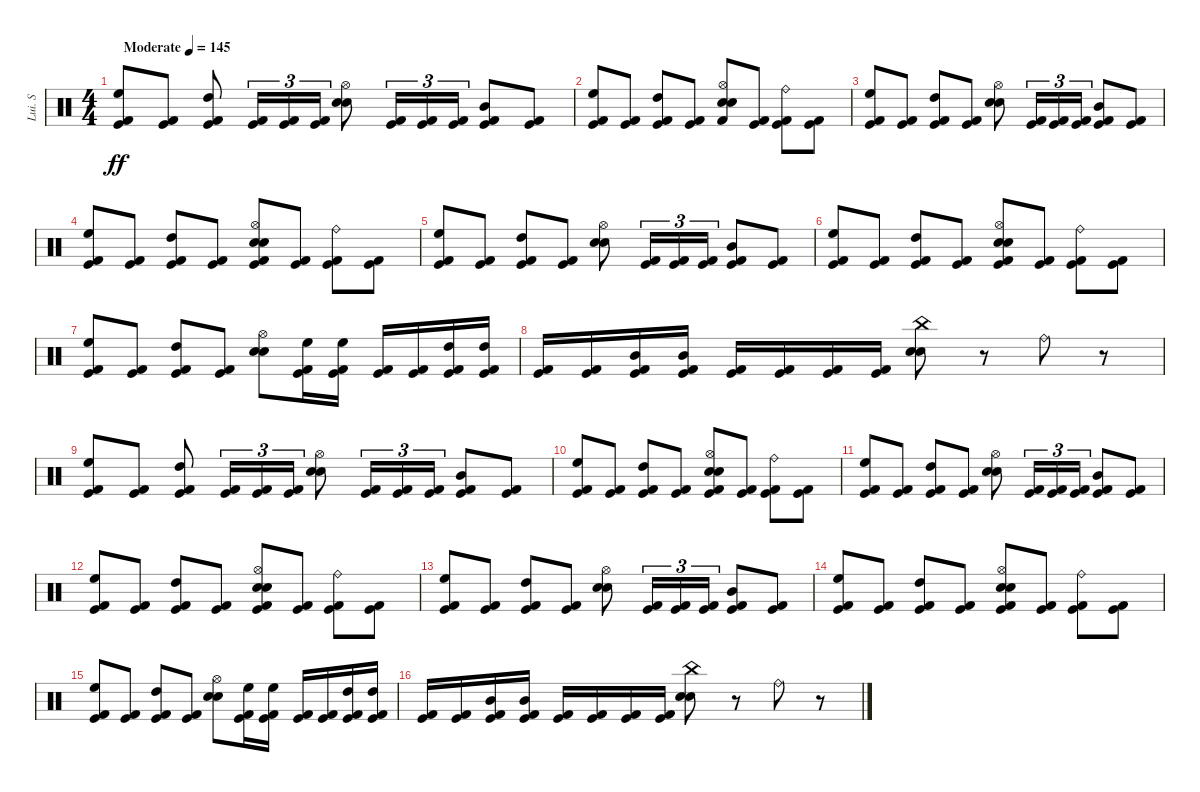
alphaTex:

\track ("Lui. S" "Lui. S") {instrument percussion}
\staff {score}
\articulation defaults
\ts (4 4)
\tempo (145 "Moderate")
\clef neutral
\ks c
("High Floor Tom (hit)" "Kick (hit)" "Kick (hit) 2").8{dy ff} ("Kick (hit)" "Kick (hit) 2").8 ("High Tom (hit)" "Kick (hit)" "Kick (hit) 2").8 ("Kick (hit)" "Kick (hit) 2").16{tu (3 2)} ("Kick (hit)" "Kick (hit) 2").16{tu (3 2)} ("Kick (hit)" "Kick (hit) 2").16{tu (3 2)} ("Hi-Hat (open)" "Snare (hit) 2" "Electric Snare (hit)").8 ("Kick (hit)" "Kick (hit) 2").16{tu (3 2)} ("Kick (hit)" "Kick (hit) 2").16{tu (3 2)} ("Kick (hit)" "Kick (hit) 2").16{tu (3 2)} ("Mid Tom (hit)" "Kick (hit)" "Kick (hit) 2").8 ("Kick (hit)" "Kick (hit) 2").8 |
("High Floor Tom (hit)" "Kick (hit)" "Kick (hit) 2").8 ("Kick (hit)" "Kick (hit) 2").8 ("High Tom (hit)" "Kick (hit)" "Kick (hit) 2").8 ("Kick (hit)" "Kick (hit) 2").8 ("Hi-Hat (open)" "Snare (hit) 2" "Electric Snare (hit)" "Kick (hit) 2").8 ("Kick (hit)" "Kick (hit) 2").8 ("Ride (bell)" "Kick (hit)" "Kick (hit) 2").8 ("Kick (hit)" "Kick (hit) 2").8 |
("High Floor Tom (hit)" "Kick (hit)" "Kick (hit) 2").8 ("Kick (hit)" "Kick (hit) 2").8 ("High Tom (hit)" "Kick (hit)" "Kick (hit) 2").8 ("Kick (hit)" "Kick (hit) 2").8 ("Hi-Hat (open)" "Snare (hit) 2" "Electric Snare (hit)").8 ("Kick (hit)" "Kick (hit) 2").16{tu (3 2)} ("Kick (hit)" "Kick (hit) 2").16{tu (3 2)} ("Kick (hit)" "Kick (hit) 2").16{tu (3 2)} ("Mid Tom (hit)" "Kick (hit)" "Kick (hit) 2").8 ("Kick (hit)" "Kick (hit) 2").8 |
("High Floor Tom (hit)" "Kick (hit)" "Kick (hit) 2").8 ("Kick (hit)" "Kick (hit) 2").8 ("High Tom (hit)" "Kick (hit)" "Kick (hit) 2").8 ("Kick (hit)" "Kick (hit) 2").8 ("Snare (hit) 2" "Hi-Hat (open)" "Kick (hit)" "Electric Snare (hit)" "Kick (hit) 2").8 ("Kick (hit)" "Kick (hit) 2").8 ("Ride (bell)" "Kick (hit)" "Kick (hit) 2").8 ("Kick (hit)" "Kick (hit) 2").8 |
("High Floor Tom (hit)" "Kick (hit)" "Kick (hit) 2").8 ("Kick (hit)" "Kick (hit) 2").8 ("High Tom (hit)" "Kick (hit)" "Kick (hit) 2").8 ("Kick (hit)" "Kick (hit) 2").8 ("Hi-Hat (open)" "Snare (hit) 2" "Electric Snare (hit)").8 ("Kick (hit)" "Kick (hit) 2").16{tu (3 2)} ("Kick (hit)" "Kick (hit) 2").16{tu (3 2)} ("Kick (hit)" "Kick (hit) 2").16{tu (3 2)} ("Mid Tom (hit)" "Kick (hit)" "Kick (hit) 2").8 ("Kick (hit)" "Kick (hit) 2").8 |
("High Floor Tom (hit)" "Kick (hit)" "Kick (hit) 2").8 ("Kick (hit)" "Kick (hit) 2").8 ("High Tom (hit)" "Kick (hit)" "Kick (hit) 2").8 ("Kick (hit)" "Kick (hit) 2").8 ("Snare (hit) 2" "Hi-Hat (open)" "Kick (hit)" "Electric Snare (hit)" "Kick (hit) 2").8 ("Kick (hit)" "Kick (hit) 2").8 ("Ride (bell)" "Kick (hit)" "Kick (hit) 2").8 ("Kick (hit)" "Kick (hit) 2").8 |
("High Floor Tom (hit)" "Kick (hit)" "Kick (hit) 2").8 ("Kick (hit)" "Kick (hit) 2").8 ("High Tom (hit)" "Kick (hit)" "Kick (hit) 2").8 ("Kick (hit)" "Kick (hit) 2").8 ("Hi-Hat (open)" "Snare (hit) 2" "Electric Snare (hit)").8 ("High Floor Tom (hit)" "Kick (hit)" "Kick (hit) 2").16 ("High Floor Tom (hit)" "Kick (hit)" "Kick (hit) 2").16 ("Kick (hit)" "Kick (hit) 2").16 ("Kick (hit)" "Kick (hit) 2").16 ("High Tom (hit)" "Kick (hit)" "Kick (hit) 2").16 ("High Tom (hit)" "Kick (hit)" "Kick (hit) 2").16 |
("Kick (hit)" "Kick (hit) 2").16 ("Kick (hit)" "Kick (hit) 2").16 ("Mid Tom (hit)" "Kick (hit)" "Kick (hit) 2").16 ("Mid Tom (hit)" "Kick (hit)" "Kick (hit) 2").16 ("Kick (hit)" "Kick (hit) 2").16 ("Kick (hit)" "Kick (hit) 2").16 ("Kick (hit)" "Kick (hit) 2").16 ("Kick (hit)" "Kick (hit) 2").16 ("China (hit)" "Snare (hit) 2" "Electric Snare (hit)").8 r.8 "Ride (bell)".8 r.8 |
("High Floor Tom (hit)" "Kick (hit)" "Kick (hit) 2").8 ("Kick (hit)" "Kick (hit) 2").8 ("High Tom (hit)" "Kick (hit)" "Kick (hit) 2").8 ("Kick (hit)" "Kick (hit) 2").16{tu (3 2)} ("Kick (hit)" "Kick (hit) 2").16{tu (3 2)} ("Kick (hit)" "Kick (hit) 2").16{tu (3 2)} ("Hi-Hat (open)" "Snare (hit) 2" "Electric Snare (hit)").8 ("Kick (hit)" "Kick (hit) 2").16{tu (3 2)} ("Kick (hit)" "Kick (hit) 2").16{tu (3 2)} ("Kick (hit)" "Kick (hit) 2").16{tu (3 2)} ("Mid Tom (hit)" "Kick (hit)" "Kick (hit) 2").8 ("Kick (hit)" "Kick (hit) 2").8 |
("High Floor Tom (hit)" "Kick (hit)" "Kick (hit) 2").8 ("Kick (hit)" "Kick (hit) 2").8 ("High Tom (hit)" "Kick (hit)" "Kick (hit) 2").8 ("Kick (hit)" "Kick (hit) 2").8 ("Snare (hit) 2" "Hi-Hat (open)" "Kick (hit)" "Electric Snare (hit)" "Kick (hit) 2").8 ("Kick (hit)" "Kick (hit) 2").8 ("Ride (bell)" "Kick (hit)" "Kick (hit) 2").8 ("Kick (hit)" "Kick (hit) 2").8 |
("High Floor Tom (hit)" "Kick (hit)" "Kick (hit) 2").8 ("Kick (hit)" "Kick (hit) 2").8 ("High Tom (hit)" "Kick (hit)" "Kick (hit) 2").8 ("Kick (hit)" "Kick (hit) 2").8 ("Hi-Hat (open)" "Snare (hit) 2" "Electric Snare (hit)").8 ("Kick (hit)" "Kick (hit) 2").16{tu (3 2)} ("Kick (hit)" "Kick (hit) 2").16{tu (3 2)} ("Kick (hit)" "Kick (hit) 2").16{tu (3 2)} ("Mid Tom (hit)" "Kick (hit)" "Kick (hit) 2").8 ("Kick (hit)" "Kick (hit) 2").8 |
("High Floor Tom (hit)" "Kick (hit)" "Kick (hit) 2").8 ("Kick (hit)" "Kick (hit) 2").8 ("High Tom (hit)" "Kick (hit)" "Kick (hit) 2").8 ("Kick (hit)" "Kick (hit) 2").8 ("Snare (hit) 2" "Hi-Hat (open)" "Kick (hit)" "Electric Snare (hit)" "Kick (hit) 2").8 ("Kick (hit)" "Kick (hit) 2").8 ("Ride (bell)" "Kick (hit)" "Kick (hit) 2").8 ("Kick (hit)" "Kick (hit) 2").8 |
("High Floor Tom (hit)" "Kick (hit)" "Kick (hit) 2").8 ("Kick (hit)" "Kick (hit) 2").8 ("High Tom (hit)" "Kick (hit)" "Kick (hit) 2").8 ("Kick (hit)" "Kick (hit) 2").8 ("Hi-Hat (open)" "Snare (hit) 2" "Electric Snare (hit)").8 ("Kick (hit)" "Kick (hit) 2").16{tu (3 2)} ("Kick (hit)" "Kick (hit) 2").16{tu (3 2)} ("Kick (hit)" "Kick (hit) 2").16{tu (3 2)} ("Mid Tom (hit)" "Kick (hit)" "Kick (hit) 2").8 ("Kick (hit)" "Kick (hit) 2").8 |
("High Floor Tom (hit)" "Kick (hit)" "Kick (hit) 2").8 ("Kick (hit)" "Kick (hit) 2").8 ("High Tom (hit)" "Kick (hit)" "Kick (hit) 2").8 ("Kick (hit)" "Kick (hit) 2").8 ("Snare (hit) 2" "Hi-Hat (open)" "Kick (hit)" "Electric Snare (hit)" "Kick (hit) 2").8 ("Kick (hit)" "Kick (hit) 2").8 ("Ride (bell)" "Kick (hit)" "Kick (hit) 2").8 ("Kick (hit)" "Kick (hit) 2").8 |
("High Floor Tom (hit)" "Kick (hit)" "Kick (hit) 2").8 ("Kick (hit)" "Kick (hit) 2").8 ("High Tom (hit)" "Kick (hit)" "Kick (hit) 2").8 ("Kick (hit)" "Kick (hit) 2").8 ("Hi-Hat (open)" "Snare (hit) 2" "Electric Snare (hit)").8 ("High Floor Tom (hit)" "Kick (hit)" "Kick (hit) 2").16 ("High Floor Tom (hit)" "Kick (hit)" "Kick (hit) 2").16 ("Kick (hit)" "Kick (hit) 2").16 ("Kick (hit)" "Kick (hit) 2").16 ("High Tom (hit)" "Kick (hit)" "Kick (hit) 2").16 ("High Tom (hit)" "Kick (hit)" "Kick (hit) 2").16 |
("Kick (hit)" "Kick (hit) 2").16 ("Kick (hit)" "Kick (hit) 2").16 ("Mid Tom (hit)" "Kick (hit)" "Kick (hit) 2").16 ("Mid Tom (hit)" "Kick (hit)" "Kick (hit) 2").16 ("Kick (hit)" "Kick (hit) 2").16 ("Kick (hit)" "Kick (hit) 2").16 ("Kick (hit)" "Kick (hit) 2").16 ("Kick (hit)" "Kick (hit) 2").16 ("China (hit)" "Snare (hit) 2" "Electric Snare (hit)").8 r.8 "Ride (bell)".8 r.8
